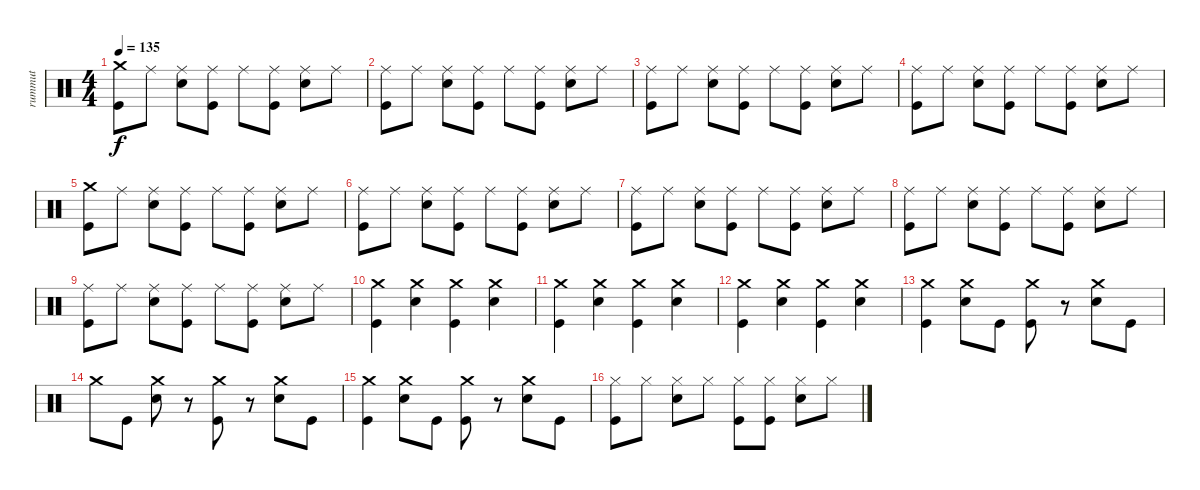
\track ("rummut" "rummut") {instrument percussion}
\staff {score}
\articulation defaults
\ts (4 4)
\tempo 135
\clef neutral
\ks c
("Crash medium (hit)" "Kick (hit)").8{dy f} "Ride (middle)".8 ("Ride (middle)" "Snare (hit) 2").8 ("Ride (middle)" "Kick (hit)").8 "Ride (middle)".8 ("Ride (middle)" "Kick (hit)").8 ("Ride (middle)" "Snare (hit) 2").8 "Ride (middle)".8 |
("Ride (middle)" "Kick (hit)").8 "Ride (middle)".8 ("Ride (middle)" "Snare (hit) 2").8 ("Ride (middle)" "Kick (hit)").8 "Ride (middle)".8 ("Ride (middle)" "Kick (hit)").8 ("Ride (middle)" "Snare (hit) 2").8 "Ride (middle)".8 |
("Ride (middle)" "Kick (hit)").8 "Ride (middle)".8 ("Ride (middle)" "Snare (hit) 2").8 ("Ride (middle)" "Kick (hit)").8 "Ride (middle)".8 ("Ride (middle)" "Kick (hit)").8 ("Ride (middle)" "Snare (hit) 2").8 "Ride (middle)".8 |
("Ride (middle)" "Kick (hit)").8 "Ride (middle)".8 ("Ride (middle)" "Snare (hit) 2").8 ("Ride (middle)" "Kick (hit)").8 "Ride (middle)".8 ("Ride (middle)" "Kick (hit)").8 ("Ride (middle)" "Snare (hit) 2").8 "Ride (middle)".8 |
("Crash medium (hit)" "Kick (hit)").8 "Ride (middle)".8 ("Ride (middle)" "Snare (hit) 2").8 ("Ride (middle)" "Kick (hit)").8 "Ride (middle)".8 ("Ride (middle)" "Kick (hit)").8 ("Ride (middle)" "Snare (hit) 2").8 "Ride (middle)".8 |
("Ride (middle)" "Kick (hit)").8 "Ride (middle)".8 ("Ride (middle)" "Snare (hit) 2").8 ("Ride (middle)" "Kick (hit)").8 "Ride (middle)".8 ("Ride (middle)" "Kick (hit)").8 ("Ride (middle)" "Snare (hit) 2").8 "Ride (middle)".8 |
("Ride (middle)" "Kick (hit)").8 "Ride (middle)".8 ("Ride (middle)" "Snare (hit) 2").8 ("Ride (middle)" "Kick (hit)").8 "Ride (middle)".8 ("Ride (middle)" "Kick (hit)").8 ("Ride (middle)" "Snare (hit) 2").8 "Ride (middle)".8 |
("Ride (middle)" "Kick (hit)").8 "Ride (middle)".8 ("Ride (middle)" "Snare (hit) 2").8 ("Ride (middle)" "Kick (hit)").8 "Ride (middle)".8 ("Ride (middle)" "Kick (hit)").8 ("Ride (middle)" "Snare (hit) 2").8 "Ride (middle)".8 |
("Ride (middle)" "Kick (hit)").8 "Ride (middle)".8 ("Ride (middle)" "Snare (hit) 2").8 ("Ride (middle)" "Kick (hit)").8 "Ride (middle)".8 ("Ride (middle)" "Kick (hit)").8 ("Ride (middle)" "Snare (hit) 2").8 "Ride (middle)".8 |
("Crash medium (hit)" "Kick (hit)").4 ("Crash medium (hit)" "Snare (hit) 2").4 ("Crash medium (hit)" "Kick (hit)").4 ("Crash medium (hit)" "Snare (hit) 2").4 |
("Crash medium (hit)" "Kick (hit)").4 ("Crash medium (hit)" "Snare (hit) 2").4 ("Crash medium (hit)" "Kick (hit)").4 ("Crash medium (hit)" "Snare (hit) 2").4 |
("Crash medium (hit)" "Kick (hit)").4 ("Crash medium (hit)" "Snare (hit) 2").4 ("Crash medium (hit)" "Kick (hit)").4 ("Crash medium (hit)" "Snare (hit) 2").4 |
("Crash medium (hit)" "Kick (hit)").4 ("Crash medium (hit)" "Snare (hit) 2").8 "Kick (hit)".8 ("Crash medium (hit)" "Kick (hit)").8 r.8 ("Crash medium (hit)" "Snare (hit) 2").8 "Kick (hit)".8 |
"Crash medium (hit)".8 "Kick (hit)".8 ("Crash medium (hit)" "Snare (hit) 2").8 r.8 ("Crash medium (hit)" "Kick (hit)").8 r.8 ("Crash medium (hit)" "Snare (hit) 2").8 "Kick (hit)".8 |
("Crash medium (hit)" "Kick (hit)").4 ("Crash medium (hit)" "Snare (hit) 2").8 "Kick (hit)".8 ("Crash medium (hit)" "Kick (hit)").8 r.8 ("Crash medium (hit)" "Snare (hit) 2").8 "Kick (hit)".8 |
("Hi-Hat (closed)" "Kick (hit)").8 "Hi-Hat (closed)".8 ("Hi-Hat (closed)" "Snare (hit) 2").8 "Hi-Hat (closed)".8 ("Hi-Hat (closed)" "Kick (hit)").8 ("Hi-Hat (closed)" "Kick (hit)").8 ("Hi-Hat (closed)" "Snare (hit) 2").8 "Hi-Hat (closed)".8
